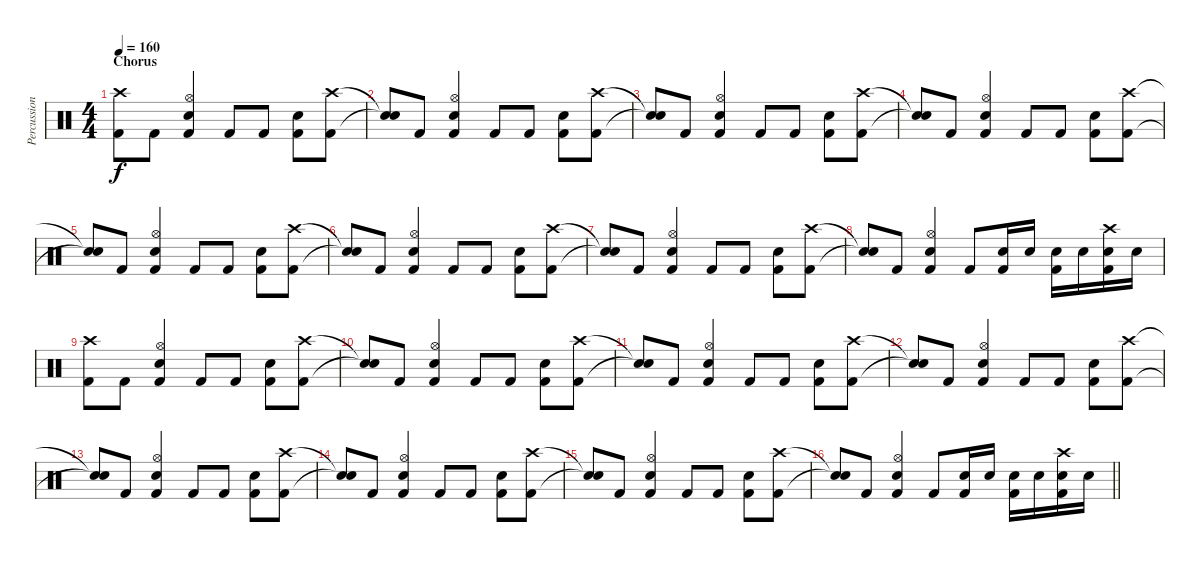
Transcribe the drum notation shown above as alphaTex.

\track ("Percussion" "Percussion") {instrument percussion}
\staff {score}
\articulation defaults
\ts (4 4)
\section ("" "Chorus")
\tempo 160
\clef neutral
\ks c
("Crash high (hit)" "Kick (hit) 2").8{dy f} "Kick (hit) 2".8 ("Hi-Hat (open)" "Snare (hit) 2" "Kick (hit) 2").4 "Kick (hit) 2".8 "Kick (hit) 2".8 ("Snare (hit) 2" "Kick (hit) 2").8 ("Crash high (hit)" "Kick (hit) 2").8 |
("Snare (hit)"{t} "Snare (hit)"{t}).8 "Kick (hit) 2".8 ("Hi-Hat (open)" "Snare (hit) 2" "Kick (hit) 2").4 "Kick (hit) 2".8 "Kick (hit) 2".8 ("Snare (hit) 2" "Kick (hit) 2").8 ("Crash high (hit)" "Kick (hit) 2").8 |
("Snare (hit)"{t} "Snare (hit)"{t}).8 "Kick (hit) 2".8 ("Hi-Hat (open)" "Snare (hit) 2" "Kick (hit) 2").4 "Kick (hit) 2".8 "Kick (hit) 2".8 ("Snare (hit) 2" "Kick (hit) 2").8 ("Crash high (hit)" "Kick (hit) 2").8 |
("Snare (hit)"{t} "Snare (hit)"{t}).8 "Kick (hit) 2".8 ("Hi-Hat (open)" "Snare (hit) 2" "Kick (hit) 2").4 "Kick (hit) 2".8 "Kick (hit) 2".8 ("Snare (hit) 2" "Kick (hit) 2").8 ("Crash high (hit)" "Kick (hit) 2").8 |
("Snare (hit)"{t} "Snare (hit)"{t}).8 "Kick (hit) 2".8 ("Hi-Hat (open)" "Snare (hit) 2" "Kick (hit) 2").4 "Kick (hit) 2".8 "Kick (hit) 2".8 ("Snare (hit) 2" "Kick (hit) 2").8 ("Crash high (hit)" "Kick (hit) 2").8 |
("Snare (hit)"{t} "Snare (hit)"{t}).8 "Kick (hit) 2".8 ("Hi-Hat (open)" "Snare (hit) 2" "Kick (hit) 2").4 "Kick (hit) 2".8 "Kick (hit) 2".8 ("Snare (hit) 2" "Kick (hit) 2").8 ("Crash high (hit)" "Kick (hit) 2").8 |
("Snare (hit)"{t} "Snare (hit)"{t}).8 "Kick (hit) 2".8 ("Hi-Hat (open)" "Snare (hit) 2" "Kick (hit) 2").4 "Kick (hit) 2".8 "Kick (hit) 2".8 ("Snare (hit) 2" "Kick (hit) 2").8 ("Crash high (hit)" "Kick (hit) 2").8 |
("Snare (hit)"{t} "Snare (hit)"{t}).8 "Kick (hit) 2".8 ("Hi-Hat (open)" "Snare (hit) 2" "Kick (hit) 2").4 "Kick (hit) 2".8 ("Snare (hit) 2" "Kick (hit) 2").16 "Snare (hit) 2".16 ("Snare (hit) 2" "Kick (hit) 2").16 "Snare (hit) 2".16 ("Crash high (hit)" "Snare (hit) 2" "Kick (hit) 2").16 "Snare (hit) 2".16 |
("Crash high (hit)" "Kick (hit) 2").8 "Kick (hit) 2".8 ("Hi-Hat (open)" "Snare (hit) 2" "Kick (hit) 2").4 "Kick (hit) 2".8 "Kick (hit) 2".8 ("Snare (hit) 2" "Kick (hit) 2").8 ("Crash high (hit)" "Kick (hit) 2").8 |
("Snare (hit)"{t} "Snare (hit)"{t}).8 "Kick (hit) 2".8 ("Hi-Hat (open)" "Snare (hit) 2" "Kick (hit) 2").4 "Kick (hit) 2".8 "Kick (hit) 2".8 ("Snare (hit) 2" "Kick (hit) 2").8 ("Crash high (hit)" "Kick (hit) 2").8 |
("Snare (hit)"{t} "Snare (hit)"{t}).8 "Kick (hit) 2".8 ("Hi-Hat (open)" "Snare (hit) 2" "Kick (hit) 2").4 "Kick (hit) 2".8 "Kick (hit) 2".8 ("Snare (hit) 2" "Kick (hit) 2").8 ("Crash high (hit)" "Kick (hit) 2").8 |
("Snare (hit)"{t} "Snare (hit)"{t}).8 "Kick (hit) 2".8 ("Hi-Hat (open)" "Snare (hit) 2" "Kick (hit) 2").4 "Kick (hit) 2".8 "Kick (hit) 2".8 ("Snare (hit) 2" "Kick (hit) 2").8 ("Crash high (hit)" "Kick (hit) 2").8 |
("Snare (hit)"{t} "Snare (hit)"{t}).8 "Kick (hit) 2".8 ("Hi-Hat (open)" "Snare (hit) 2" "Kick (hit) 2").4 "Kick (hit) 2".8 "Kick (hit) 2".8 ("Snare (hit) 2" "Kick (hit) 2").8 ("Crash high (hit)" "Kick (hit) 2").8 |
("Snare (hit)"{t} "Snare (hit)"{t}).8 "Kick (hit) 2".8 ("Hi-Hat (open)" "Snare (hit) 2" "Kick (hit) 2").4 "Kick (hit) 2".8 "Kick (hit) 2".8 ("Snare (hit) 2" "Kick (hit) 2").8 ("Crash high (hit)" "Kick (hit) 2").8 |
("Snare (hit)"{t} "Snare (hit)"{t}).8 "Kick (hit) 2".8 ("Hi-Hat (open)" "Snare (hit) 2" "Kick (hit) 2").4 "Kick (hit) 2".8 "Kick (hit) 2".8 ("Snare (hit) 2" "Kick (hit) 2").8 ("Crash high (hit)" "Kick (hit) 2").8 |
\barLineRight lightlight
("Snare (hit)"{t} "Snare (hit)"{t}).8 "Kick (hit) 2".8 ("Hi-Hat (open)" "Snare (hit) 2" "Kick (hit) 2").4 "Kick (hit) 2".8 ("Snare (hit) 2" "Kick (hit) 2").16 "Snare (hit) 2".16 ("Snare (hit) 2" "Kick (hit) 2").16 "Snare (hit) 2".16 ("Crash high (hit)" "Snare (hit) 2" "Kick (hit) 2").16 "Snare (hit) 2".16
